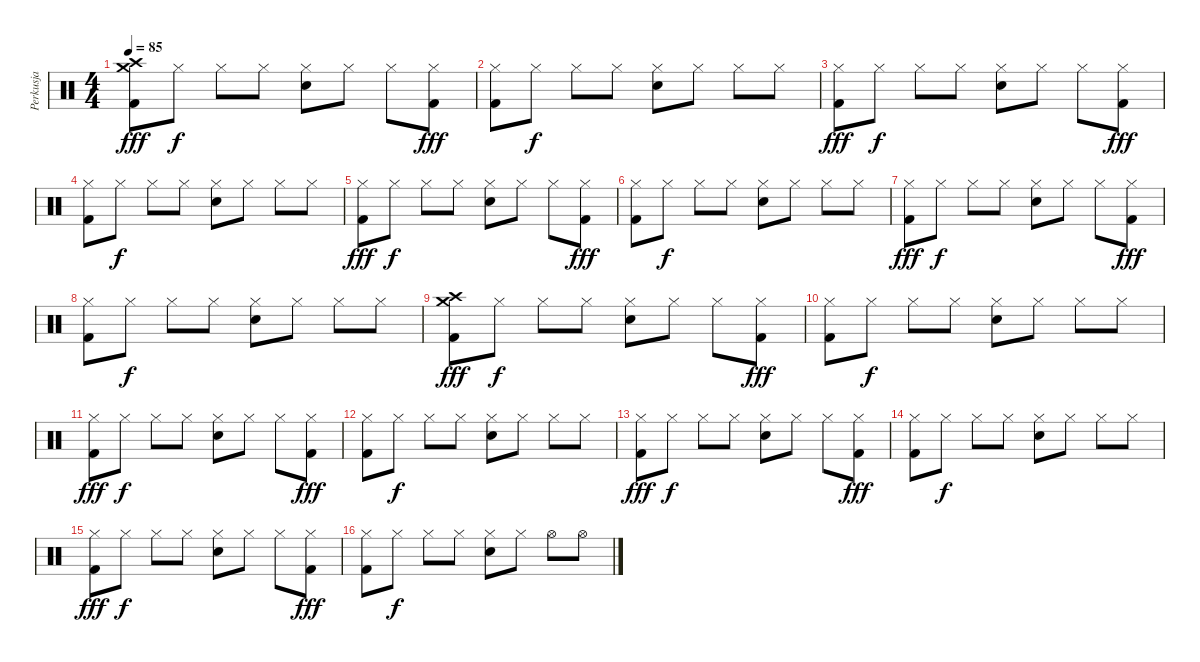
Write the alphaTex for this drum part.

\track ("Perkusja" "Perkusja") {instrument percussion}
\staff {score}
\articulation defaults
\ts (4 4)
\tempo 85
\clef neutral
\ks c
("Crash medium (hit)" "Crash high (hit)" "Kick (hit) 2").8{dy fff} "Hi-Hat (closed)".8{dy f} "Hi-Hat (closed)".8 "Hi-Hat (closed)".8 ("Hi-Hat (closed)" "Electric Snare (hit)").8 "Hi-Hat (closed)".8 "Hi-Hat (closed)".8 ("Hi-Hat (closed)" "Kick (hit) 2").8{dy fff} |
("Hi-Hat (closed)" "Kick (hit) 2").8 "Hi-Hat (closed)".8{dy f} "Hi-Hat (closed)".8 "Hi-Hat (closed)".8 ("Hi-Hat (closed)" "Electric Snare (hit)").8 "Hi-Hat (closed)".8 "Hi-Hat (closed)".8 "Hi-Hat (closed)".8 |
("Hi-Hat (closed)" "Kick (hit) 2").8{dy fff} "Hi-Hat (closed)".8{dy f} "Hi-Hat (closed)".8 "Hi-Hat (closed)".8 ("Hi-Hat (closed)" "Electric Snare (hit)").8 "Hi-Hat (closed)".8 "Hi-Hat (closed)".8 ("Hi-Hat (closed)" "Kick (hit) 2").8{dy fff} |
("Hi-Hat (closed)" "Kick (hit) 2").8 "Hi-Hat (closed)".8{dy f} "Hi-Hat (closed)".8 "Hi-Hat (closed)".8 ("Hi-Hat (closed)" "Electric Snare (hit)").8 "Hi-Hat (closed)".8 "Hi-Hat (closed)".8 "Hi-Hat (closed)".8 |
("Hi-Hat (closed)" "Kick (hit) 2").8{dy fff} "Hi-Hat (closed)".8{dy f} "Hi-Hat (closed)".8 "Hi-Hat (closed)".8 ("Hi-Hat (closed)" "Electric Snare (hit)").8 "Hi-Hat (closed)".8 "Hi-Hat (closed)".8 ("Hi-Hat (closed)" "Kick (hit) 2").8{dy fff} |
("Hi-Hat (closed)" "Kick (hit) 2").8 "Hi-Hat (closed)".8{dy f} "Hi-Hat (closed)".8 "Hi-Hat (closed)".8 ("Hi-Hat (closed)" "Electric Snare (hit)").8 "Hi-Hat (closed)".8 "Hi-Hat (closed)".8 "Hi-Hat (closed)".8 |
("Hi-Hat (closed)" "Kick (hit) 2").8{dy fff} "Hi-Hat (closed)".8{dy f} "Hi-Hat (closed)".8 "Hi-Hat (closed)".8 ("Hi-Hat (closed)" "Electric Snare (hit)").8 "Hi-Hat (closed)".8 "Hi-Hat (closed)".8 ("Hi-Hat (closed)" "Kick (hit) 2").8{dy fff} |
("Hi-Hat (closed)" "Kick (hit) 2").8 "Hi-Hat (closed)".8{dy f} "Hi-Hat (closed)".8 "Hi-Hat (closed)".8 ("Hi-Hat (closed)" "Electric Snare (hit)").8 "Hi-Hat (closed)".8 "Hi-Hat (closed)".8 "Hi-Hat (closed)".8 |
("Crash medium (hit)" "Crash high (hit)" "Kick (hit) 2").8{dy fff} "Hi-Hat (closed)".8{dy f} "Hi-Hat (closed)".8 "Hi-Hat (closed)".8 ("Hi-Hat (closed)" "Electric Snare (hit)").8 "Hi-Hat (closed)".8 "Hi-Hat (closed)".8 ("Hi-Hat (closed)" "Kick (hit) 2").8{dy fff} |
("Hi-Hat (closed)" "Kick (hit) 2").8 "Hi-Hat (closed)".8{dy f} "Hi-Hat (closed)".8 "Hi-Hat (closed)".8 ("Hi-Hat (closed)" "Electric Snare (hit)").8 "Hi-Hat (closed)".8 "Hi-Hat (closed)".8 "Hi-Hat (closed)".8 |
("Hi-Hat (closed)" "Kick (hit) 2").8{dy fff} "Hi-Hat (closed)".8{dy f} "Hi-Hat (closed)".8 "Hi-Hat (closed)".8 ("Hi-Hat (closed)" "Electric Snare (hit)").8 "Hi-Hat (closed)".8 "Hi-Hat (closed)".8 ("Hi-Hat (closed)" "Kick (hit) 2").8{dy fff} |
("Hi-Hat (closed)" "Kick (hit) 2").8 "Hi-Hat (closed)".8{dy f} "Hi-Hat (closed)".8 "Hi-Hat (closed)".8 ("Hi-Hat (closed)" "Electric Snare (hit)").8 "Hi-Hat (closed)".8 "Hi-Hat (closed)".8 "Hi-Hat (closed)".8 |
("Hi-Hat (closed)" "Kick (hit) 2").8{dy fff} "Hi-Hat (closed)".8{dy f} "Hi-Hat (closed)".8 "Hi-Hat (closed)".8 ("Hi-Hat (closed)" "Electric Snare (hit)").8 "Hi-Hat (closed)".8 "Hi-Hat (closed)".8 ("Hi-Hat (closed)" "Kick (hit) 2").8{dy fff} |
("Hi-Hat (closed)" "Kick (hit) 2").8 "Hi-Hat (closed)".8{dy f} "Hi-Hat (closed)".8 "Hi-Hat (closed)".8 ("Hi-Hat (closed)" "Electric Snare (hit)").8 "Hi-Hat (closed)".8 "Hi-Hat (closed)".8 "Hi-Hat (closed)".8 |
("Hi-Hat (closed)" "Kick (hit) 2").8{dy fff} "Hi-Hat (closed)".8{dy f} "Hi-Hat (closed)".8 "Hi-Hat (closed)".8 ("Hi-Hat (closed)" "Electric Snare (hit)").8 "Hi-Hat (closed)".8 "Hi-Hat (closed)".8 ("Hi-Hat (closed)" "Kick (hit) 2").8{dy fff} |
("Hi-Hat (closed)" "Kick (hit) 2").8 "Hi-Hat (closed)".8{dy f} "Hi-Hat (closed)".8 "Hi-Hat (closed)".8 ("Hi-Hat (closed)" "Electric Snare (hit)").8 "Hi-Hat (closed)".8 "Hi-Hat (open)".8 "Hi-Hat (open)".8
